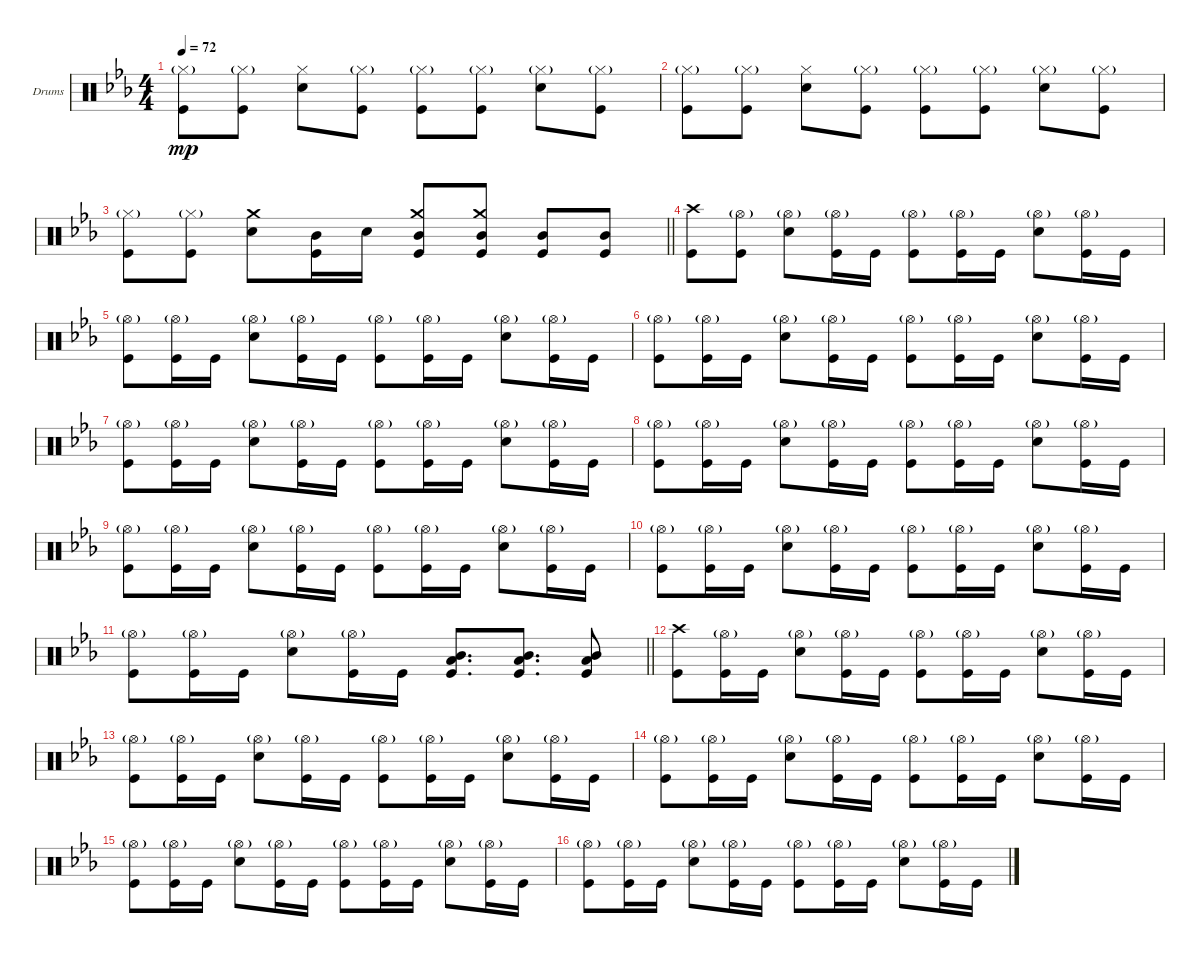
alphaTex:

\defaultSystemsLayout 4
\bracketExtendMode groupsimilarinstruments
\firstSystemTrackNameOrientation horizontal
\otherSystemsTrackNameOrientation horizontal
\track ("Drumkit" "Drums") {instrument percussion}
\staff {score}
\articulation defaults
\ts (4 4)
\tempo 72
\clef neutral
\ks eb
("Kick (hit)" "Hi-Hat (closed)"{g}).8{dy mp} ("Kick (hit)" "Hi-Hat (closed)"{g}).8 ("Snare (hit) 2" "Hi-Hat (closed)").8 ("Kick (hit)" "Hi-Hat (closed)"{g}).8 ("Kick (hit)" "Hi-Hat (closed)"{g}).8 ("Kick (hit)" "Hi-Hat (closed)"{g}).8 ("Snare (hit) 2" "Hi-Hat (closed)"{g}).8 ("Kick (hit)" "Hi-Hat (closed)"{g}).8 |
("Kick (hit)" "Hi-Hat (closed)"{g}).8 ("Kick (hit)" "Hi-Hat (closed)"{g}).8 ("Snare (hit) 2" "Hi-Hat (closed)").8 ("Kick (hit)" "Hi-Hat (closed)"{g}).8 ("Kick (hit)" "Hi-Hat (closed)"{g}).8 ("Kick (hit)" "Hi-Hat (closed)"{g}).8 ("Snare (hit) 2" "Hi-Hat (closed)"{g}).8 ("Kick (hit)" "Hi-Hat (closed)"{g}).8 |
\barLineRight lightlight
("Kick (hit)" "Hi-Hat (closed)"{g}).8 ("Kick (hit)" "Hi-Hat (closed)"{g}).8 ("Snare (hit) 2" "Crash medium (hit)").8 ("Kick (hit)" "Mid Tom (hit)").16 "Snare (hit) 2".16 ("Kick (hit)" "Mid Tom (hit)" "Crash medium (hit)").8 ("Kick (hit)" "Mid Tom (hit)" "Crash medium (hit)").8 ("Kick (hit)" "Mid Tom (hit)").8 ("Kick (hit)" "Mid Tom (hit)").8 |
("Kick (hit)" "Crash high (hit)").8 ("Kick (hit)" "Hi-Hat (open)"{g}).8 ("Snare (hit) 2" "Hi-Hat (open)"{g}).8 ("Kick (hit)" "Hi-Hat (open)"{g}).16 "Kick (hit)".16 ("Kick (hit)" "Hi-Hat (open)"{g}).8 ("Kick (hit)" "Hi-Hat (open)"{g}).16 "Kick (hit)".16 ("Snare (hit) 2" "Hi-Hat (open)"{g}).8 ("Kick (hit)" "Hi-Hat (open)"{g}).16 "Kick (hit)".16 |
("Kick (hit)" "Hi-Hat (open)"{g}).8 ("Kick (hit)" "Hi-Hat (open)"{g}).16 "Kick (hit)".16 ("Snare (hit) 2" "Hi-Hat (open)"{g}).8 ("Kick (hit)" "Hi-Hat (open)"{g}).16 "Kick (hit)".16 ("Kick (hit)" "Hi-Hat (open)"{g}).8 ("Kick (hit)" "Hi-Hat (open)"{g}).16 "Kick (hit)".16 ("Snare (hit) 2" "Hi-Hat (open)"{g}).8 ("Kick (hit)" "Hi-Hat (open)"{g}).16 "Kick (hit)".16 |
("Kick (hit)" "Hi-Hat (open)"{g}).8 ("Kick (hit)" "Hi-Hat (open)"{g}).16 "Kick (hit)".16 ("Snare (hit) 2" "Hi-Hat (open)"{g}).8 ("Kick (hit)" "Hi-Hat (open)"{g}).16 "Kick (hit)".16 ("Kick (hit)" "Hi-Hat (open)"{g}).8 ("Kick (hit)" "Hi-Hat (open)"{g}).16 "Kick (hit)".16 ("Snare (hit) 2" "Hi-Hat (open)"{g}).8 ("Kick (hit)" "Hi-Hat (open)"{g}).16 "Kick (hit)".16 |
("Kick (hit)" "Hi-Hat (open)"{g}).8 ("Kick (hit)" "Hi-Hat (open)"{g}).16 "Kick (hit)".16 ("Snare (hit) 2" "Hi-Hat (open)"{g}).8 ("Kick (hit)" "Hi-Hat (open)"{g}).16 "Kick (hit)".16 ("Kick (hit)" "Hi-Hat (open)"{g}).8 ("Kick (hit)" "Hi-Hat (open)"{g}).16 "Kick (hit)".16 ("Snare (hit) 2" "Hi-Hat (open)"{g}).8 ("Kick (hit)" "Hi-Hat (open)"{g}).16 "Kick (hit)".16 |
("Kick (hit)" "Hi-Hat (open)"{g}).8 ("Kick (hit)" "Hi-Hat (open)"{g}).16 "Kick (hit)".16 ("Snare (hit) 2" "Hi-Hat (open)"{g}).8 ("Kick (hit)" "Hi-Hat (open)"{g}).16 "Kick (hit)".16 ("Kick (hit)" "Hi-Hat (open)"{g}).8 ("Kick (hit)" "Hi-Hat (open)"{g}).16 "Kick (hit)".16 ("Snare (hit) 2" "Hi-Hat (open)"{g}).8 ("Kick (hit)" "Hi-Hat (open)"{g}).16 "Kick (hit)".16 |
("Kick (hit)" "Hi-Hat (open)"{g}).8 ("Kick (hit)" "Hi-Hat (open)"{g}).16 "Kick (hit)".16 ("Snare (hit) 2" "Hi-Hat (open)"{g}).8 ("Kick (hit)" "Hi-Hat (open)"{g}).16 "Kick (hit)".16 ("Kick (hit)" "Hi-Hat (open)"{g}).8 ("Kick (hit)" "Hi-Hat (open)"{g}).16 "Kick (hit)".16 ("Snare (hit) 2" "Hi-Hat (open)"{g}).8 ("Kick (hit)" "Hi-Hat (open)"{g}).16 "Kick (hit)".16 |
("Kick (hit)" "Hi-Hat (open)"{g}).8 ("Kick (hit)" "Hi-Hat (open)"{g}).16 "Kick (hit)".16 ("Snare (hit) 2" "Hi-Hat (open)"{g}).8 ("Kick (hit)" "Hi-Hat (open)"{g}).16 "Kick (hit)".16 ("Kick (hit)" "Hi-Hat (open)"{g}).8 ("Kick (hit)" "Hi-Hat (open)"{g}).16 "Kick (hit)".16 ("Snare (hit) 2" "Hi-Hat (open)"{g}).8 ("Kick (hit)" "Hi-Hat (open)"{g}).16 "Kick (hit)".16 |
\barLineRight lightlight
("Kick (hit)" "Hi-Hat (open)"{g}).8 ("Kick (hit)" "Hi-Hat (open)"{g}).16 "Kick (hit)".16 ("Snare (hit) 2" "Hi-Hat (open)"{g}).8 ("Kick (hit)" "Hi-Hat (open)"{g}).16 "Kick (hit)".16 ("Kick (hit)" "Low Tom (hit)" "Mid Tom (hit)").8{d} ("Kick (hit)" "Low Tom (hit)" "Mid Tom (hit)").8{d} ("Kick (hit)" "Low Tom (hit)" "Mid Tom (hit)").8 |
("Kick (hit)" "Crash high (hit)").8 ("Kick (hit)" "Hi-Hat (open)"{g}).16 "Kick (hit)".16 ("Snare (hit) 2" "Hi-Hat (open)"{g}).8 ("Kick (hit)" "Hi-Hat (open)"{g}).16 "Kick (hit)".16 ("Kick (hit)" "Hi-Hat (open)"{g}).8 ("Kick (hit)" "Hi-Hat (open)"{g}).16 "Kick (hit)".16 ("Snare (hit) 2" "Hi-Hat (open)"{g}).8 ("Kick (hit)" "Hi-Hat (open)"{g}).16 "Kick (hit)".16 |
("Kick (hit)" "Hi-Hat (open)"{g}).8 ("Kick (hit)" "Hi-Hat (open)"{g}).16 "Kick (hit)".16 ("Snare (hit) 2" "Hi-Hat (open)"{g}).8 ("Kick (hit)" "Hi-Hat (open)"{g}).16 "Kick (hit)".16 ("Kick (hit)" "Hi-Hat (open)"{g}).8 ("Kick (hit)" "Hi-Hat (open)"{g}).16 "Kick (hit)".16 ("Snare (hit) 2" "Hi-Hat (open)"{g}).8 ("Kick (hit)" "Hi-Hat (open)"{g}).16 "Kick (hit)".16 |
("Kick (hit)" "Hi-Hat (open)"{g}).8 ("Kick (hit)" "Hi-Hat (open)"{g}).16 "Kick (hit)".16 ("Snare (hit) 2" "Hi-Hat (open)"{g}).8 ("Kick (hit)" "Hi-Hat (open)"{g}).16 "Kick (hit)".16 ("Kick (hit)" "Hi-Hat (open)"{g}).8 ("Kick (hit)" "Hi-Hat (open)"{g}).16 "Kick (hit)".16 ("Snare (hit) 2" "Hi-Hat (open)"{g}).8 ("Kick (hit)" "Hi-Hat (open)"{g}).16 "Kick (hit)".16 |
("Kick (hit)" "Hi-Hat (open)"{g}).8 ("Kick (hit)" "Hi-Hat (open)"{g}).16 "Kick (hit)".16 ("Snare (hit) 2" "Hi-Hat (open)"{g}).8 ("Kick (hit)" "Hi-Hat (open)"{g}).16 "Kick (hit)".16 ("Kick (hit)" "Hi-Hat (open)"{g}).8 ("Kick (hit)" "Hi-Hat (open)"{g}).16 "Kick (hit)".16 ("Snare (hit) 2" "Hi-Hat (open)"{g}).8 ("Kick (hit)" "Hi-Hat (open)"{g}).16 "Kick (hit)".16 |
("Kick (hit)" "Hi-Hat (open)"{g}).8 ("Kick (hit)" "Hi-Hat (open)"{g}).16 "Kick (hit)".16 ("Snare (hit) 2" "Hi-Hat (open)"{g}).8 ("Kick (hit)" "Hi-Hat (open)"{g}).16 "Kick (hit)".16 ("Kick (hit)" "Hi-Hat (open)"{g}).8 ("Kick (hit)" "Hi-Hat (open)"{g}).16 "Kick (hit)".16 ("Snare (hit) 2" "Hi-Hat (open)"{g}).8 ("Kick (hit)" "Hi-Hat (open)"{g}).16 "Kick (hit)".16
